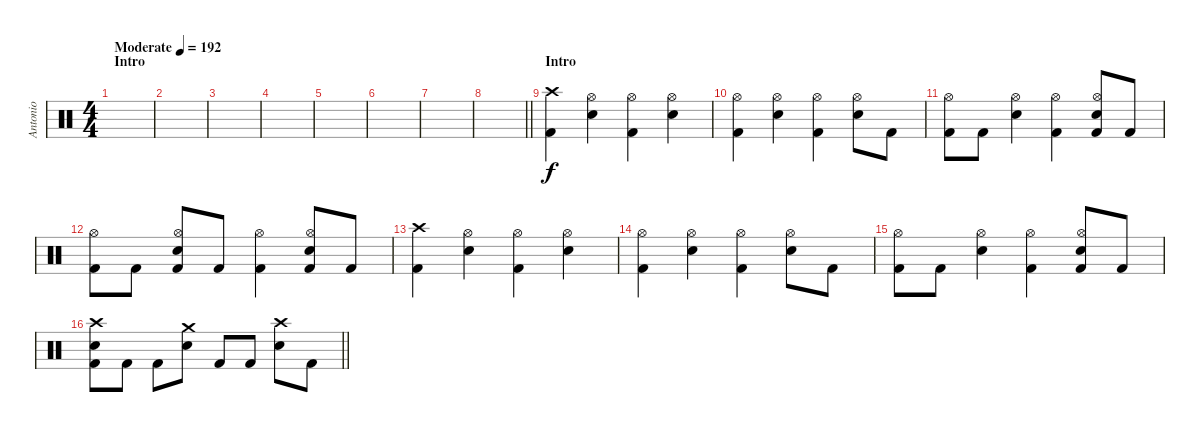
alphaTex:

\track ("Antonio" "Antonio") {instrument percussion}
\staff {score}
\articulation defaults
\ts (4 4)
\section ("" "Intro")
\tempo (192 "Moderate")
\clef neutral
\ks c
|
|
|
|
|
|
|
\barLineRight lightlight
|
\section ("" "Intro")
("Crash high (hit)" "Kick (hit) 2").4 ("Hi-Hat (open)" "Electric Snare (hit)").4 ("Hi-Hat (open)" "Kick (hit) 2").4 ("Hi-Hat (open)" "Electric Snare (hit)").4 |
("Hi-Hat (open)" "Kick (hit) 2").4 ("Hi-Hat (open)" "Electric Snare (hit)").4 ("Hi-Hat (open)" "Kick (hit) 2").4 ("Hi-Hat (open)" "Electric Snare (hit)").8 "Kick (hit) 2".8 |
("Hi-Hat (open)" "Kick (hit) 2").8 "Kick (hit) 2".8 ("Hi-Hat (open)" "Electric Snare (hit)").4 ("Hi-Hat (open)" "Kick (hit) 2").4 ("Hi-Hat (open)" "Electric Snare (hit)" "Kick (hit) 2").8 "Kick (hit) 2".8 |
("Hi-Hat (open)" "Kick (hit) 2").8 "Kick (hit) 2".8 ("Hi-Hat (open)" "Electric Snare (hit)" "Kick (hit) 2").8 "Kick (hit) 2".8 ("Hi-Hat (open)" "Kick (hit) 2").4 ("Hi-Hat (open)" "Electric Snare (hit)" "Kick (hit) 2").8 "Kick (hit) 2".8 |
("Crash high (hit)" "Kick (hit) 2").4 ("Hi-Hat (open)" "Electric Snare (hit)").4 ("Hi-Hat (open)" "Kick (hit) 2").4 ("Hi-Hat (open)" "Electric Snare (hit)").4 |
("Hi-Hat (open)" "Kick (hit) 2").4 ("Hi-Hat (open)" "Electric Snare (hit)").4 ("Hi-Hat (open)" "Kick (hit) 2").4 ("Hi-Hat (open)" "Electric Snare (hit)").8 "Kick (hit) 2".8 |
("Hi-Hat (open)" "Kick (hit) 2").8 "Kick (hit) 2".8 ("Hi-Hat (open)" "Electric Snare (hit)").4 ("Hi-Hat (open)" "Kick (hit) 2").4 ("Hi-Hat (open)" "Electric Snare (hit)" "Kick (hit) 2").8 "Kick (hit) 2".8 |
\barLineRight lightlight
("Crash high (hit)" "Electric Snare (hit)" "Kick (hit) 2").8 "Kick (hit) 2".8 "Kick (hit) 2".8 ("Crash medium (hit)" "Electric Snare (hit)").8 "Kick (hit) 2".8 "Kick (hit) 2".8 ("Crash high (hit)" "Electric Snare (hit)").8 "Kick (hit) 2".8
